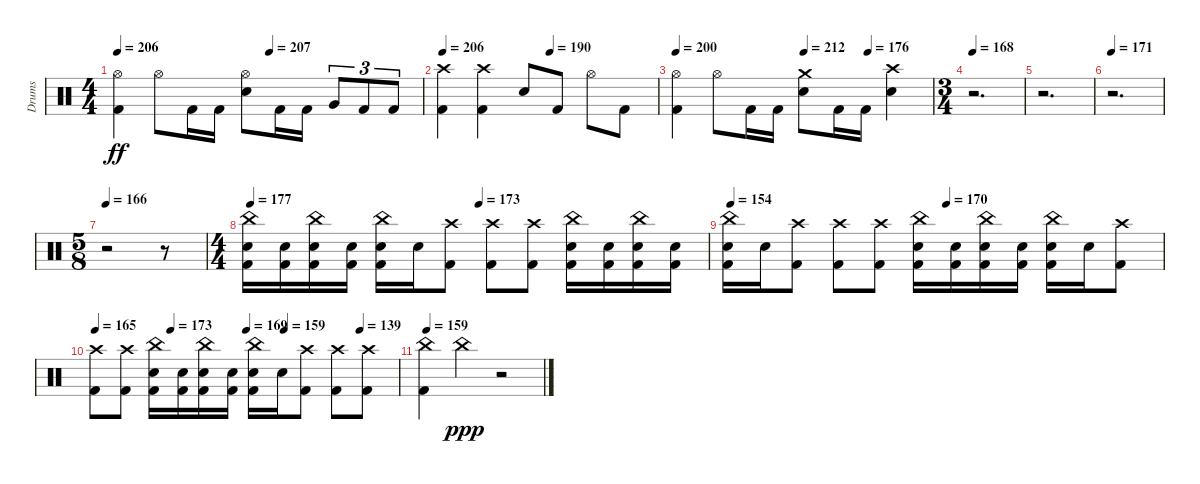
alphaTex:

\track ("Drums" "Drums") {instrument percussion}
\staff {score}
\articulation defaults
\ts (4 4)
\tempo 206
\tempo (207 0.5)
\clef neutral
\ks c
("Kick (hit) 2" "Hi-Hat (open)").4{dy ff} "Hi-Hat (open)".8 "Kick (hit) 2".16 "Kick (hit) 2".16 ("Snare (hit) 2" "Hi-Hat (open)").8 "Kick (hit) 2".16 "Kick (hit) 2".16 "Very Low Tom (hit)".8{tu (3 2)} "Kick (hit) 2".8{tu (3 2)} "Kick (hit) 2".8{tu (3 2)} |
\tempo 206
\tempo (190 0.5)
("Kick (hit) 2" "Crash high (hit)").4 ("Kick (hit) 2" "Crash high (hit)").4 "Snare (hit) 2".8 "Kick (hit) 2".8 "Hi-Hat (open)".8 "Kick (hit) 2".8 |
\tempo 200
\tempo (212 0.5)
\tempo (176 0.75)
("Kick (hit) 2" "Hi-Hat (open)").4 "Hi-Hat (open)".8 "Kick (hit) 2".16 "Kick (hit) 2".16 ("Snare (hit) 2" "Crash medium (hit)").8 "Kick (hit) 2".16 "Kick (hit) 2".16 ("Snare (hit) 2" "Crash high (hit)").4 |
\ts (3 4)
\tempo 168
r.2{d} |
r.2{d} |
\tempo 171
r.2{d} |
\ts (5 8)
\tempo 166
r.2 r.8 |
\ts (4 4)
\tempo 177
\tempo (173 0.5)
("Kick (hit) 2" "Snare (hit) 2" "China (hit)").16 ("Kick (hit) 2" "Snare (hit) 2").16 ("Kick (hit) 2" "Snare (hit) 2" "China (hit)").16 ("Kick (hit) 2" "Snare (hit) 2").16 ("Kick (hit) 2" "Snare (hit) 2" "China (hit)").16 "Snare (hit) 2".16 ("Kick (hit) 2" "Crash high (hit)").8 ("Kick (hit) 2" "Crash high (hit)").8 ("Kick (hit) 2" "Crash high (hit)").8 ("Kick (hit) 2" "Snare (hit) 2" "China (hit)").16 ("Kick (hit) 2" "Snare (hit) 2").16 ("Kick (hit) 2" "Snare (hit) 2" "China (hit)").16 ("Kick (hit) 2" "Snare (hit) 2").16 |
\tempo 154
\tempo (170 0.5)
("Kick (hit) 2" "Snare (hit) 2" "China (hit)").16 "Snare (hit) 2".16 ("Kick (hit) 2" "Crash high (hit)").8 ("Kick (hit) 2" "Crash high (hit)").8 ("Kick (hit) 2" "Crash high (hit)").8 ("Kick (hit) 2" "Snare (hit) 2" "China (hit)").16 ("Kick (hit) 2" "Snare (hit) 2").16 ("Kick (hit) 2" "Snare (hit) 2" "China (hit)").16 ("Kick (hit) 2" "Snare (hit) 2").16 ("Kick (hit) 2" "Snare (hit) 2" "China (hit)").16 "Snare (hit) 2".16 ("Kick (hit) 2" "Crash high (hit)").8 |
\tempo 165
\tempo (173 0.25)
\tempo (169 0.5)
\tempo (159 0.625)
\tempo (139 0.875)
("Kick (hit) 2" "Crash high (hit)").8 ("Kick (hit) 2" "Crash high (hit)").8 ("Kick (hit) 2" "Snare (hit) 2" "China (hit)").16 ("Kick (hit) 2" "Snare (hit) 2").16 ("Kick (hit) 2" "Snare (hit) 2" "China (hit)").16 ("Kick (hit) 2" "Snare (hit) 2").16 ("Kick (hit) 2" "Snare (hit) 2" "China (hit)").16 "Snare (hit) 2".16 ("Kick (hit) 2" "Crash high (hit)").8 ("Kick (hit) 2" "Crash high (hit)").8 ("Kick (hit) 2" "Crash high (hit)").8 |
\tempo 159
("Kick (hit) 2" "China (hit)").4 "China (hit)".4{dy ppp} r.2
